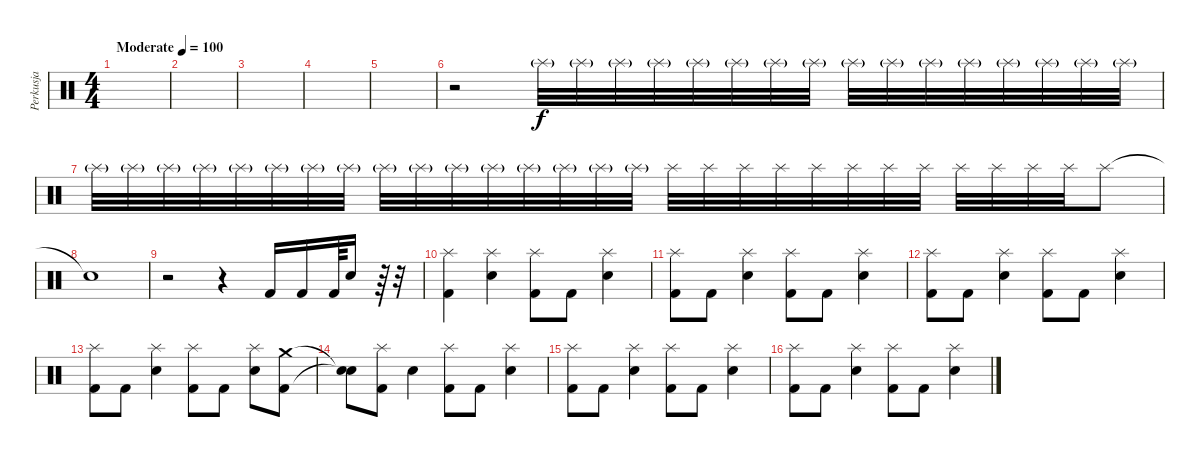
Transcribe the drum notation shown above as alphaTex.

\track ("Perkusja" "Perkusja") {instrument percussion}
\staff {score}
\articulation defaults
\ts (4 4)
\tempo (100 "Moderate")
\clef neutral
\ks c
|
|
|
|
|
r.2 "Splash (hit)"{g}.32 "Splash (hit)"{g}.32 "Splash (hit)"{g}.32 "Splash (hit)"{g}.32 "Splash (hit)"{g}.32 "Splash (hit)"{g}.32 "Splash (hit)"{g}.32 "Splash (hit)"{g}.32 "Splash (hit)"{g}.32 "Splash (hit)"{g}.32 "Splash (hit)"{g}.32 "Splash (hit)"{g}.32 "Splash (hit)"{g}.32 "Splash (hit)"{g}.32 "Splash (hit)"{g}.32 "Splash (hit)"{g}.32 |
"Splash (hit)"{g}.32 "Splash (hit)"{g}.32 "Splash (hit)"{g}.32 "Splash (hit)"{g}.32 "Splash (hit)"{g}.32 "Splash (hit)"{g}.32 "Splash (hit)"{g}.32 "Splash (hit)"{g}.32 "Splash (hit)"{g}.32 "Splash (hit)"{g}.32 "Splash (hit)"{g}.32 "Splash (hit)"{g}.32 "Splash (hit)"{g}.32 "Splash (hit)"{g}.32 "Splash (hit)"{g}.32 "Splash (hit)"{g}.32 "Splash (hit)".32{dy f} "Splash (hit)".32 "Splash (hit)".32 "Splash (hit)".32 "Splash (hit)".32 "Splash (hit)".32 "Splash (hit)".32 "Splash (hit)".32 "Splash (hit)".32 "Splash (hit)".32 "Splash (hit)".32 "Splash (hit)".32 "Splash (hit)".8 |
"Snare (hit)"{t}.1 |
r.2 r.4 "Kick (hit) 2".16 "Kick (hit) 2".16 "Kick (hit) 2".64 "Snare (hit) 2".16 r.64 r.32 |
("Splash (hit)" "Kick (hit) 2").4 ("Splash (hit)" "Snare (hit) 2").4 ("Splash (hit)" "Kick (hit) 2").8 "Kick (hit) 2".8 ("Splash (hit)" "Snare (hit) 2").4 |
("Splash (hit)" "Kick (hit) 2").8 "Kick (hit) 2".8 ("Splash (hit)" "Snare (hit) 2").4 ("Splash (hit)" "Kick (hit) 2").8 "Kick (hit) 2".8 ("Splash (hit)" "Snare (hit) 2").4 |
("Splash (hit)" "Kick (hit) 2").8 "Kick (hit) 2".8 ("Splash (hit)" "Snare (hit) 2").4 ("Splash (hit)" "Kick (hit) 2").8 "Kick (hit) 2".8 ("Splash (hit)" "Snare (hit) 2").4 |
("Splash (hit)" "Kick (hit) 2").8 "Kick (hit) 2".8 ("Splash (hit)" "Snare (hit) 2").4 ("Splash (hit)" "Kick (hit) 2").8 "Kick (hit) 2".8 ("Splash (hit)" "Snare (hit) 2").8 ("Crash medium (hit)" "Kick (hit) 2").8 |
("Snare (hit)"{t} "Snare (hit)"{t}).8 ("Splash (hit)" "Kick (hit) 2").8 "Snare (hit) 2".4 ("Splash (hit)" "Kick (hit) 2").8 "Kick (hit) 2".8 ("Splash (hit)" "Snare (hit) 2").4 |
("Splash (hit)" "Kick (hit) 2").8 "Kick (hit) 2".8 ("Splash (hit)" "Snare (hit) 2").4 ("Splash (hit)" "Kick (hit) 2").8 "Kick (hit) 2".8 ("Splash (hit)" "Snare (hit) 2").4 |
("Splash (hit)" "Kick (hit) 2").8 "Kick (hit) 2".8 ("Splash (hit)" "Snare (hit) 2").4 ("Splash (hit)" "Kick (hit) 2").8 "Kick (hit) 2".8 ("Splash (hit)" "Snare (hit) 2").4
